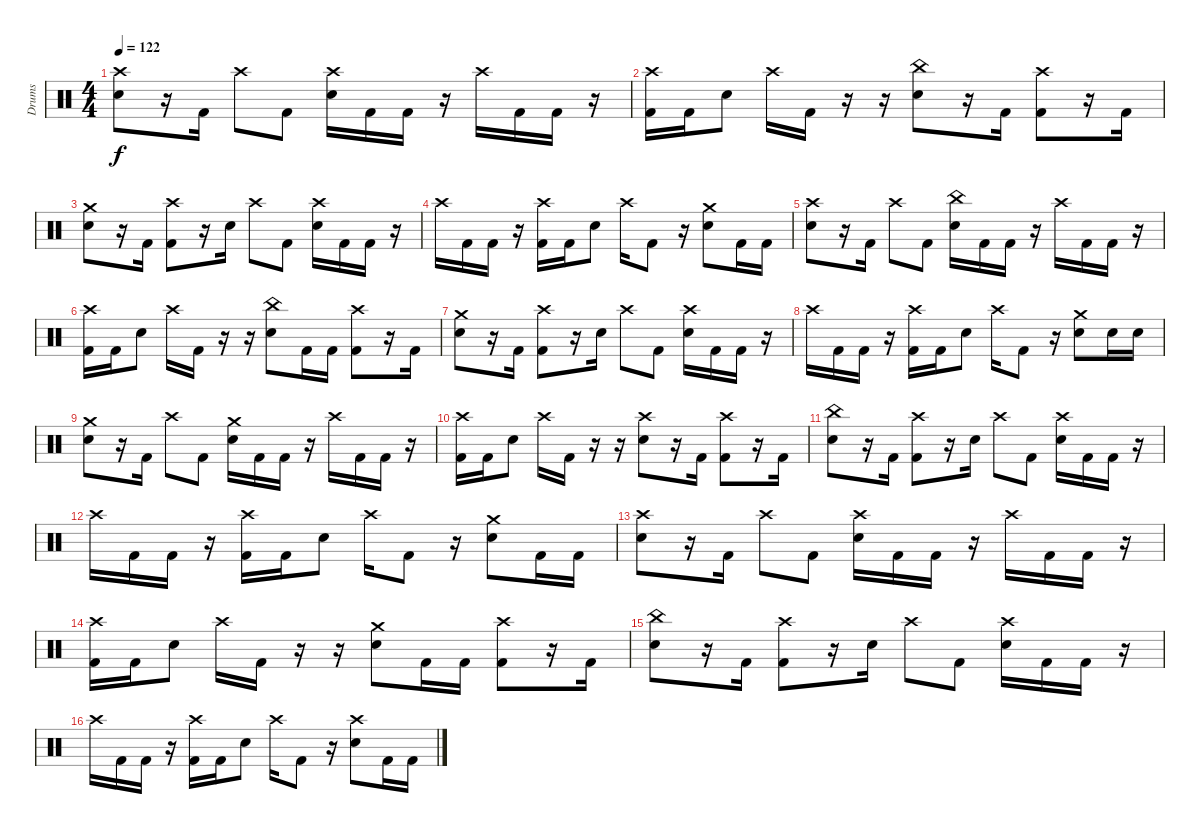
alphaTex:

\track ("Drums" "Drums") {instrument percussion}
\staff {score}
\articulation defaults
\ts (4 4)
\tempo 122
\clef neutral
\ks c
("Crash high (hit)" "Electric Snare (hit)").8{dy f} r.16 "Kick (hit) 2".16 "Crash high (hit)".8 "Kick (hit) 2".8 ("Crash high (hit)" "Electric Snare (hit)").16 "Kick (hit) 2".16 "Kick (hit) 2".16 r.16 "Crash high (hit)".16 "Kick (hit) 2".16 "Kick (hit) 2".16 r.16 |
("Crash high (hit)" "Kick (hit) 2").16 "Kick (hit) 2".16 "Electric Snare (hit)".8 "Crash high (hit)".16 "Kick (hit) 2".16 r.16 r.16 ("China (hit)" "Electric Snare (hit)").8 r.16 "Kick (hit) 2".16 ("Crash high (hit)" "Kick (hit) 2").8 r.16 "Kick (hit) 2".16 |
("Crash medium (hit)" "Electric Snare (hit)").8 r.16 "Kick (hit) 2".16 ("Crash high (hit)" "Kick (hit) 2").8 r.16 "Electric Snare (hit)".16 "Crash high (hit)".8 "Kick (hit) 2".8 ("Crash high (hit)" "Electric Snare (hit)").16 "Kick (hit) 2".16 "Kick (hit) 2".16 r.16 |
"Crash high (hit)".16 "Kick (hit) 2".16 "Kick (hit) 2".16 r.16 ("Crash high (hit)" "Kick (hit) 2").16 "Kick (hit) 2".16 "Electric Snare (hit)".8 "Crash high (hit)".16 "Kick (hit) 2".8 r.16 ("Crash medium (hit)" "Electric Snare (hit)").8 "Kick (hit) 2".16 "Kick (hit) 2".16 |
("Crash high (hit)" "Electric Snare (hit)").8 r.16 "Kick (hit) 2".16 "Crash high (hit)".8 "Kick (hit) 2".8 ("China (hit)" "Electric Snare (hit)").16 "Kick (hit) 2".16 "Kick (hit) 2".16 r.16 "Crash high (hit)".16 "Kick (hit) 2".16 "Kick (hit) 2".16 r.16 |
("Crash high (hit)" "Kick (hit) 2").16 "Kick (hit) 2".16 "Electric Snare (hit)".8 "Crash high (hit)".16 "Kick (hit) 2".16 r.16 r.16 ("China (hit)" "Electric Snare (hit)").8 "Kick (hit) 2".16 "Kick (hit) 2".16 ("Crash high (hit)" "Kick (hit) 2").8 r.16 "Kick (hit) 2".16 |
("Crash medium (hit)" "Electric Snare (hit)").8 r.16 "Kick (hit) 2".16 ("Crash high (hit)" "Kick (hit) 2").8 r.16 "Electric Snare (hit)".16 "Crash high (hit)".8 "Kick (hit) 2".8 ("Crash high (hit)" "Electric Snare (hit)").16 "Kick (hit) 2".16 "Kick (hit) 2".16 r.16 |
"Crash high (hit)".16 "Kick (hit) 2".16 "Kick (hit) 2".16 r.16 ("Crash high (hit)" "Kick (hit) 2").16 "Kick (hit) 2".16 "Electric Snare (hit)".8 "Crash high (hit)".16 "Kick (hit) 2".8 r.16 ("Crash medium (hit)" "Electric Snare (hit)").8 "Electric Snare (hit)".16 "Electric Snare (hit)".16 |
("Crash medium (hit)" "Electric Snare (hit)").8 r.16 "Kick (hit) 2".16 "Crash high (hit)".8 "Kick (hit) 2".8 ("Crash medium (hit)" "Electric Snare (hit)").16 "Kick (hit) 2".16 "Kick (hit) 2".16 r.16 "Crash high (hit)".16 "Kick (hit) 2".16 "Kick (hit) 2".16 r.16 |
("Crash high (hit)" "Kick (hit) 2").16 "Kick (hit) 2".16 "Electric Snare (hit)".8 "Crash high (hit)".16 "Kick (hit) 2".16 r.16 r.16 ("Crash high (hit)" "Electric Snare (hit)").8 r.16 "Kick (hit) 2".16 ("Crash high (hit)" "Kick (hit) 2").8 r.16 "Kick (hit) 2".16 |
("China (hit)" "Electric Snare (hit)").8 r.16 "Kick (hit) 2".16 ("Crash high (hit)" "Kick (hit) 2").8 r.16 "Electric Snare (hit)".16 "Crash high (hit)".8 "Kick (hit) 2".8 ("Crash high (hit)" "Electric Snare (hit)").16 "Kick (hit) 2".16 "Kick (hit) 2".16 r.16 |
"Crash high (hit)".16 "Kick (hit) 2".16 "Kick (hit) 2".16 r.16 ("Crash high (hit)" "Kick (hit) 2").16 "Kick (hit) 2".16 "Electric Snare (hit)".8 "Crash high (hit)".16 "Kick (hit) 2".8 r.16 ("Crash medium (hit)" "Electric Snare (hit)").8 "Kick (hit) 2".16 "Kick (hit) 2".16 |
("Crash high (hit)" "Electric Snare (hit)").8 r.16 "Kick (hit) 2".16 "Crash high (hit)".8 "Kick (hit) 2".8 ("Crash high (hit)" "Electric Snare (hit)").16 "Kick (hit) 2".16 "Kick (hit) 2".16 r.16 "Crash high (hit)".16 "Kick (hit) 2".16 "Kick (hit) 2".16 r.16 |
("Crash high (hit)" "Kick (hit) 2").16 "Kick (hit) 2".16 "Electric Snare (hit)".8 "Crash high (hit)".16 "Kick (hit) 2".16 r.16 r.16 ("Crash medium (hit)" "Electric Snare (hit)").8 "Kick (hit) 2".16 "Kick (hit) 2".16 ("Crash high (hit)" "Kick (hit) 2").8 r.16 "Kick (hit) 2".16 |
("China (hit)" "Electric Snare (hit)").8 r.16 "Kick (hit) 2".16 ("Crash high (hit)" "Kick (hit) 2").8 r.16 "Electric Snare (hit)".16 "Crash high (hit)".8 "Kick (hit) 2".8 ("Crash high (hit)" "Electric Snare (hit)").16 "Kick (hit) 2".16 "Kick (hit) 2".16 r.16 |
"Crash high (hit)".16 "Kick (hit) 2".16 "Kick (hit) 2".16 r.16 ("Crash high (hit)" "Kick (hit) 2").16 "Kick (hit) 2".16 "Electric Snare (hit)".8 "Crash high (hit)".16 "Kick (hit) 2".8 r.16 ("Crash high (hit)" "Electric Snare (hit)").8 "Kick (hit) 2".16 "Kick (hit) 2".16
